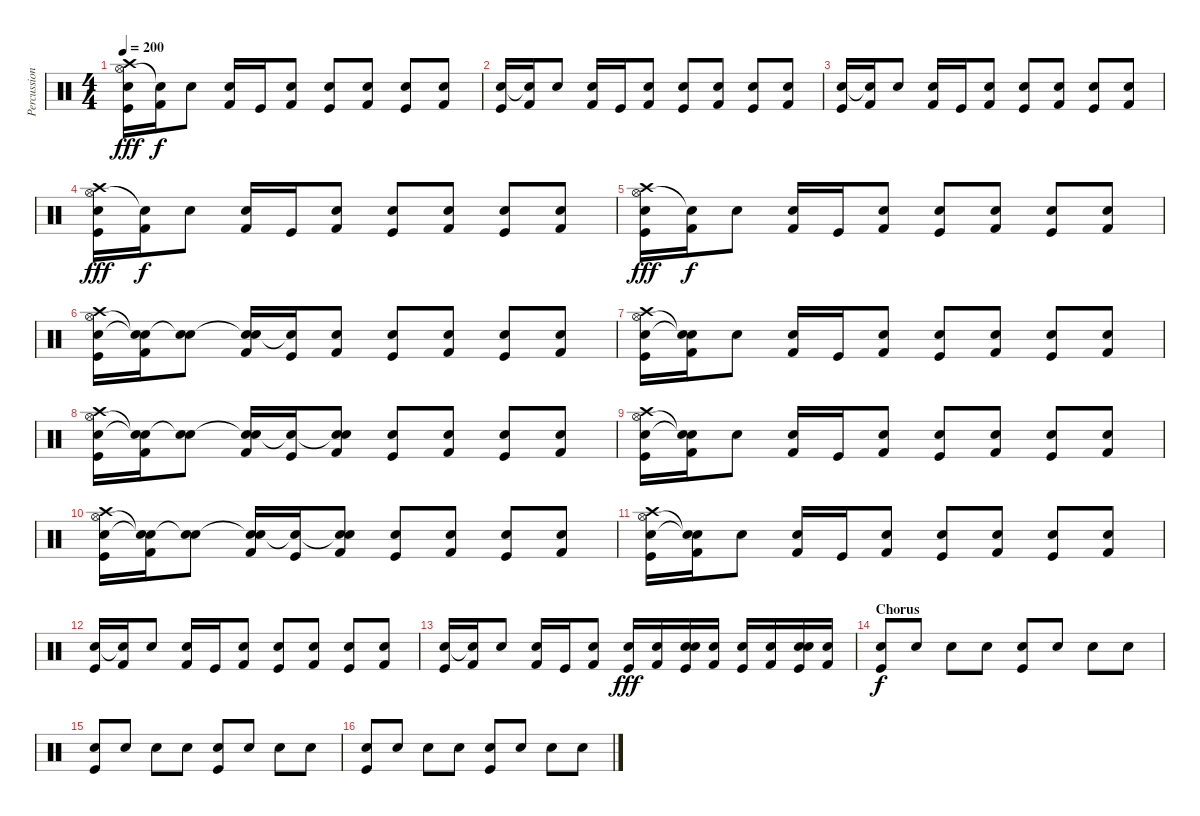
\track ("Percussion" "Percussion") {instrument percussion}
\staff {score}
\articulation defaults
\ts (4 4)
\tempo 200
\clef neutral
\ks c
("Hi-Hat (open)" "Snare (hit) 2" "Crash high (hit)" "Kick (hit)").16{dy fff} ("Snare (hit) 2"{t} "Kick (hit) 2").16{dy f} "Electric Snare (hit)".8 ("Snare (hit) 2" "Kick (hit) 2").16 "Kick (hit)".16 ("Electric Snare (hit)" "Kick (hit) 2").8 ("Snare (hit) 2" "Kick (hit)").8 ("Electric Snare (hit)" "Kick (hit) 2").8 ("Snare (hit) 2" "Kick (hit)").8 ("Electric Snare (hit)" "Kick (hit) 2").8 |
("Snare (hit) 2" "Kick (hit)").16 ("Snare (hit) 2"{t} "Kick (hit) 2").16 "Electric Snare (hit)".8 ("Snare (hit) 2" "Kick (hit) 2").16 "Kick (hit)".16 ("Electric Snare (hit)" "Kick (hit) 2").8 ("Snare (hit) 2" "Kick (hit)").8 ("Electric Snare (hit)" "Kick (hit) 2").8 ("Snare (hit) 2" "Kick (hit)").8 ("Electric Snare (hit)" "Kick (hit) 2").8 |
("Snare (hit) 2" "Kick (hit)").16 ("Snare (hit) 2"{t} "Kick (hit) 2").16 "Electric Snare (hit)".8 ("Snare (hit) 2" "Kick (hit) 2").16 "Kick (hit)".16 ("Electric Snare (hit)" "Kick (hit) 2").8 ("Snare (hit) 2" "Kick (hit)").8 ("Electric Snare (hit)" "Kick (hit) 2").8 ("Snare (hit) 2" "Kick (hit)").8 ("Electric Snare (hit)" "Kick (hit) 2").8 |
("Hi-Hat (open)" "Snare (hit) 2" "Crash high (hit)" "Kick (hit)").16{dy fff} ("Snare (hit) 2"{t} "Kick (hit) 2").16{dy f} "Electric Snare (hit)".8 ("Snare (hit) 2" "Kick (hit) 2").16 "Kick (hit)".16 ("Electric Snare (hit)" "Kick (hit) 2").8 ("Snare (hit) 2" "Kick (hit)").8 ("Electric Snare (hit)" "Kick (hit) 2").8 ("Snare (hit) 2" "Kick (hit)").8 ("Electric Snare (hit)" "Kick (hit) 2").8 |
("Hi-Hat (open)" "Snare (hit) 2" "Crash high (hit)" "Kick (hit)").16{dy fff} ("Snare (hit) 2"{t} "Kick (hit) 2").16{dy f} "Electric Snare (hit)".8 ("Snare (hit) 2" "Kick (hit) 2").16 "Kick (hit)".16 ("Electric Snare (hit)" "Kick (hit) 2").8 ("Snare (hit) 2" "Kick (hit)").8 ("Electric Snare (hit)" "Kick (hit) 2").8 ("Snare (hit) 2" "Kick (hit)").8 ("Electric Snare (hit)" "Kick (hit) 2").8 |
("Hi-Hat (open)" "Snare (hit) 2" "Crash high (hit)" "Kick (hit)").16 ("Snare (hit)"{t} "Snare (hit) 2"{t} "Kick (hit) 2").16 ("Snare (hit)"{t} "Electric Snare (hit)").8 ("Snare (hit)"{t} "Snare (hit) 2" "Kick (hit) 2").16 ("Snare (hit)"{t} "Kick (hit)").16 ("Electric Snare (hit)" "Kick (hit) 2").8 ("Snare (hit) 2" "Kick (hit)").8 ("Electric Snare (hit)" "Kick (hit) 2").8 ("Snare (hit) 2" "Kick (hit)").8 ("Electric Snare (hit)" "Kick (hit) 2").8 |
("Hi-Hat (open)" "Snare (hit) 2" "Crash high (hit)" "Kick (hit)").16 ("Snare (hit)"{t} "Snare (hit) 2"{t} "Kick (hit) 2").16 "Electric Snare (hit)".8 ("Snare (hit) 2" "Kick (hit) 2").16 "Kick (hit)".16 ("Electric Snare (hit)" "Kick (hit) 2").8 ("Snare (hit) 2" "Kick (hit)").8 ("Electric Snare (hit)" "Kick (hit) 2").8 ("Snare (hit) 2" "Kick (hit)").8 ("Electric Snare (hit)" "Kick (hit) 2").8 |
("Hi-Hat (open)" "Snare (hit) 2" "Crash high (hit)" "Kick (hit)").16 ("Snare (hit)"{t} "Snare (hit) 2"{t} "Kick (hit) 2").16 ("Snare (hit)"{t} "Electric Snare (hit)").8 ("Snare (hit)"{t} "Snare (hit) 2" "Kick (hit) 2").16 ("Snare (hit)"{t} "Kick (hit)").16 ("Snare (hit)"{t} "Electric Snare (hit)" "Kick (hit) 2").8 ("Snare (hit) 2" "Kick (hit)").8 ("Electric Snare (hit)" "Kick (hit) 2").8 ("Snare (hit) 2" "Kick (hit)").8 ("Electric Snare (hit)" "Kick (hit) 2").8 |
("Hi-Hat (open)" "Snare (hit) 2" "Crash high (hit)" "Kick (hit)").16 ("Snare (hit)"{t} "Snare (hit) 2"{t} "Kick (hit) 2").16 "Electric Snare (hit)".8 ("Snare (hit) 2" "Kick (hit) 2").16 "Kick (hit)".16 ("Electric Snare (hit)" "Kick (hit) 2").8 ("Snare (hit) 2" "Kick (hit)").8 ("Electric Snare (hit)" "Kick (hit) 2").8 ("Snare (hit) 2" "Kick (hit)").8 ("Electric Snare (hit)" "Kick (hit) 2").8 |
("Hi-Hat (open)" "Snare (hit) 2" "Crash high (hit)" "Kick (hit)").16 ("Snare (hit)"{t} "Snare (hit) 2"{t} "Kick (hit) 2").16 ("Snare (hit)"{t} "Electric Snare (hit)").8 ("Snare (hit)"{t} "Snare (hit) 2" "Kick (hit) 2").16 ("Snare (hit)"{t} "Kick (hit)").16 ("Snare (hit)"{t} "Electric Snare (hit)" "Kick (hit) 2").8 ("Snare (hit) 2" "Kick (hit)").8 ("Electric Snare (hit)" "Kick (hit) 2").8 ("Snare (hit) 2" "Kick (hit)").8 ("Electric Snare (hit)" "Kick (hit) 2").8 |
("Hi-Hat (open)" "Snare (hit) 2" "Crash high (hit)" "Kick (hit)").16 ("Snare (hit)"{t} "Snare (hit) 2"{t} "Kick (hit) 2").16 "Electric Snare (hit)".8 ("Snare (hit) 2" "Kick (hit) 2").16 "Kick (hit)".16 ("Electric Snare (hit)" "Kick (hit) 2").8 ("Snare (hit) 2" "Kick (hit)").8 ("Electric Snare (hit)" "Kick (hit) 2").8 ("Snare (hit) 2" "Kick (hit)").8 ("Electric Snare (hit)" "Kick (hit) 2").8 |
("Snare (hit) 2" "Kick (hit)").16 ("Snare (hit) 2"{t} "Kick (hit) 2").16 "Electric Snare (hit)".8 ("Snare (hit) 2" "Kick (hit) 2").16 "Kick (hit)".16 ("Electric Snare (hit)" "Kick (hit) 2").8 ("Snare (hit) 2" "Kick (hit)").8 ("Electric Snare (hit)" "Kick (hit) 2").8 ("Snare (hit) 2" "Kick (hit)").8 ("Electric Snare (hit)" "Kick (hit) 2").8 |
("Snare (hit) 2" "Kick (hit)").16 ("Snare (hit) 2"{t} "Kick (hit) 2").16 "Electric Snare (hit)".8 ("Snare (hit) 2" "Kick (hit) 2").16 "Kick (hit)".16 ("Electric Snare (hit)" "Kick (hit) 2").8 ("Snare (hit) 2" "Kick (hit)").16{dy fff} ("Snare (hit) 2" "Kick (hit) 2").16 ("Snare (hit) 2" "Electric Snare (hit)" "Kick (hit)").16 ("Snare (hit) 2" "Kick (hit) 2").16 ("Electric Snare (hit)" "Kick (hit)").16 ("Snare (hit) 2" "Kick (hit) 2").16 ("Snare (hit) 2" "Electric Snare (hit)" "Kick (hit)").16 ("Electric Snare (hit)" "Kick (hit) 2").16 |
\section ("" "Chorus")
("Snare (hit) 2" "Kick (hit)").8{dy f} "Snare (hit) 2".8 "Electric Snare (hit)".8 "Snare (hit) 2".8 ("Snare (hit) 2" "Kick (hit)").8 "Snare (hit) 2".8 "Electric Snare (hit)".8 "Snare (hit) 2".8 |
("Snare (hit) 2" "Kick (hit)").8 "Snare (hit) 2".8 "Electric Snare (hit)".8 "Snare (hit) 2".8 ("Snare (hit) 2" "Kick (hit)").8 "Snare (hit) 2".8 "Electric Snare (hit)".8 "Snare (hit) 2".8 |
("Snare (hit) 2" "Kick (hit)").8 "Snare (hit) 2".8 "Electric Snare (hit)".8 "Snare (hit) 2".8 ("Snare (hit) 2" "Kick (hit)").8 "Snare (hit) 2".8 "Electric Snare (hit)".8 "Snare (hit) 2".8
